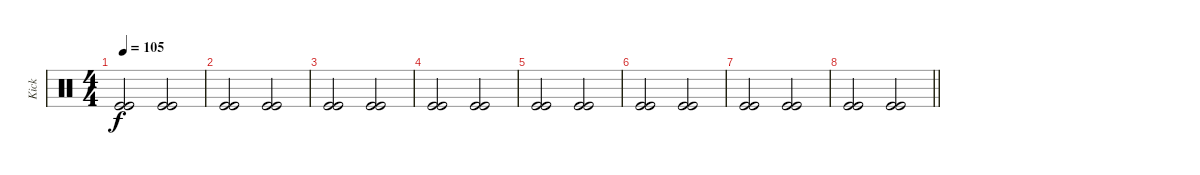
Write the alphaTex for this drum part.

\track ("Kick" "Kick") {instrument percussion}
\staff {score}
\articulation defaults
\ts (4 4)
\tempo 105
\clef neutral
\ks c
("Kick (hit)" "Kick (hit)").2{dy f} ("Kick (hit)" "Kick (hit)").2 |
("Kick (hit)" "Kick (hit)").2 ("Kick (hit)" "Kick (hit)").2 |
("Kick (hit)" "Kick (hit)").2 ("Kick (hit)" "Kick (hit)").2 |
("Kick (hit)" "Kick (hit)").2{beam merge} ("Kick (hit)" "Kick (hit)").2 |
("Kick (hit)" "Kick (hit)").2 ("Kick (hit)" "Kick (hit)").2 |
("Kick (hit)" "Kick (hit)").2{beam merge} ("Kick (hit)" "Kick (hit)").2 |
("Kick (hit)" "Kick (hit)").2 ("Kick (hit)" "Kick (hit)").2 |
\barLineRight lightlight
("Kick (hit)" "Kick (hit)").2{beam merge} ("Kick (hit)" "Kick (hit)").2
